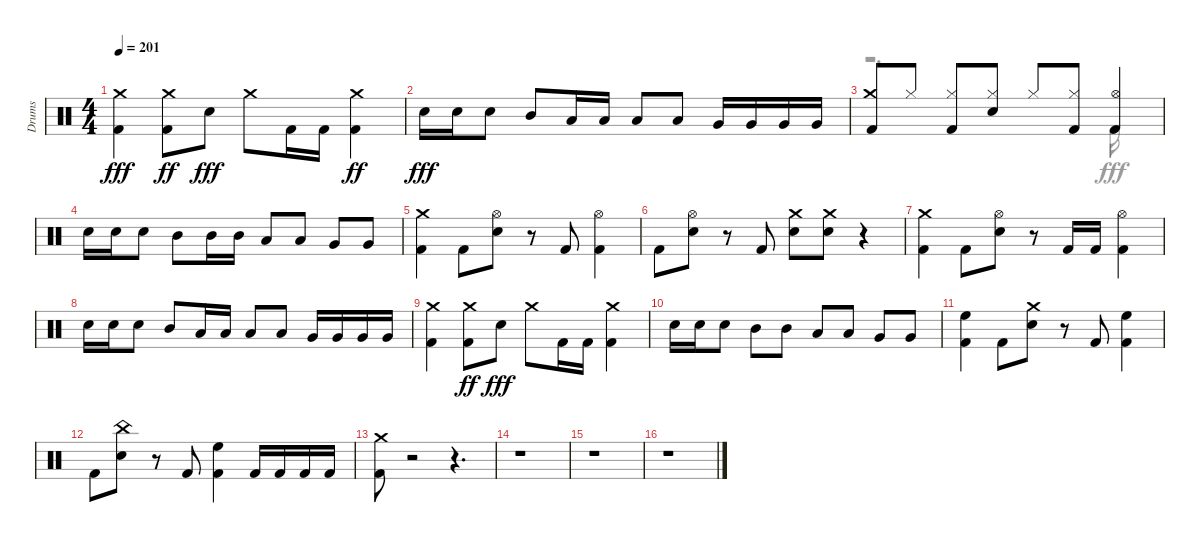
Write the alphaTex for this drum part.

\track ("Drums" "Drums") {instrument percussion}
\staff {score}
\articulation defaults
\voice
\ts (4 4)
\tempo 201
\clef neutral
\ks aminor
("Crash medium (hit)" "Kick (hit) 2").4{dy fff} ("Crash medium (hit)" "Kick (hit) 2").8{dy ff} "Snare (hit) 2".8{dy fff} "Crash medium (hit)".8 "Kick (hit) 2".16 "Kick (hit) 2".16 ("Crash medium (hit)" "Kick (hit) 2").4{dy ff} |
"Snare (hit) 2".16{dy fff} "Snare (hit) 2".16 "Snare (hit) 2".8 "Mid Tom (hit)".8 "Low Tom (hit)".16 "Low Tom (hit)".16 "Low Tom (hit)".8 "Low Tom (hit)".8 "Very Low Tom (hit)".16 "Very Low Tom (hit)".16 "Very Low Tom (hit)".16 "Very Low Tom (hit)".16 |
("Kick (hit) 2" "Crash medium (hit)").8 "Hi-Hat (closed)".8 ("Kick (hit) 2" "Hi-Hat (closed)").8 ("Hi-Hat (closed)" "Snare (hit) 2").8 "Hi-Hat (closed)".8 ("Hi-Hat (closed)" "Kick (hit) 2").8 ("Hi-Hat (open)" "Kick (hit) 2").4 |
"Snare (hit) 2".16 "Snare (hit) 2".16 "Snare (hit) 2".8 "Mid Tom (hit)".8 "Mid Tom (hit)".16 "Mid Tom (hit)".16 "Low Tom (hit)".8 "Low Tom (hit)".8 "Very Low Tom (hit)".8 "Very Low Tom (hit)".8 |
("Crash medium (hit)" "Kick (hit) 2").4 "Kick (hit) 2".8 ("Snare (hit) 2" "Hi-Hat (open)").8 r.8 "Kick (hit) 2".8 ("Kick (hit) 2" "Hi-Hat (open)").4 |
"Kick (hit) 2".8 ("Snare (hit) 2" "Hi-Hat (open)").8 r.8 "Kick (hit) 2".8 ("Snare (hit) 2" "Crash medium (hit)").8 ("Crash medium (hit)" "Snare (hit) 2").8 r.4 |
("Kick (hit) 2" "Crash medium (hit)").4 "Kick (hit) 2".8 ("Snare (hit) 2" "Hi-Hat (open)").8 r.8 "Kick (hit) 2".16 "Kick (hit) 2".16 ("Hi-Hat (open)" "Kick (hit) 2").4 |
"Snare (hit) 2".16 "Snare (hit) 2".16 "Snare (hit) 2".8 "Mid Tom (hit)".8 "Low Tom (hit)".16 "Low Tom (hit)".16 "Low Tom (hit)".8 "Low Tom (hit)".8 "Very Low Tom (hit)".16 "Very Low Tom (hit)".16 "Very Low Tom (hit)".16 "Very Low Tom (hit)".16 |
("Kick (hit) 2" "Crash medium (hit)").4 ("Crash medium (hit)" "Kick (hit) 2").8{dy ff} "Snare (hit) 2".8{dy fff} "Crash medium (hit)".8 "Kick (hit) 2".16 "Kick (hit) 2".16 ("Crash medium (hit)" "Kick (hit) 2").4 |
"Snare (hit) 2".16 "Snare (hit) 2".16 "Snare (hit) 2".8 "Mid Tom (hit)".8 "Mid Tom (hit)".8 "Low Tom (hit)".8 "Low Tom (hit)".8 "Very Low Tom (hit)".8 "Very Low Tom (hit)".8 |
("High Floor Tom (hit)" "Kick (hit) 2").4 "Kick (hit) 2".8 ("Snare (hit) 2" "Crash medium (hit)").8 r.8 "Kick (hit) 2".8 ("High Floor Tom (hit)" "Kick (hit) 2").4 |
"Kick (hit) 2".8 ("Snare (hit) 2" "China (hit)").8 r.8 "Kick (hit) 2".8 ("High Floor Tom (hit)" "Kick (hit) 2").4 "Kick (hit) 2".16 "Kick (hit) 2".16 "Kick (hit) 2".16 "Kick (hit) 2".16 |
("Crash medium (hit)" "Kick (hit) 2").8 r.2 r.4{d} |
r.1 |
r.1 |
r.1
\voice
\clef neutral
\ottava regular
\simile none
\ks aminor
|
|
r.2{d} "Kick (hit) 2".16 |
|
|
|
|
|
|
|
|
|
|
|
|
